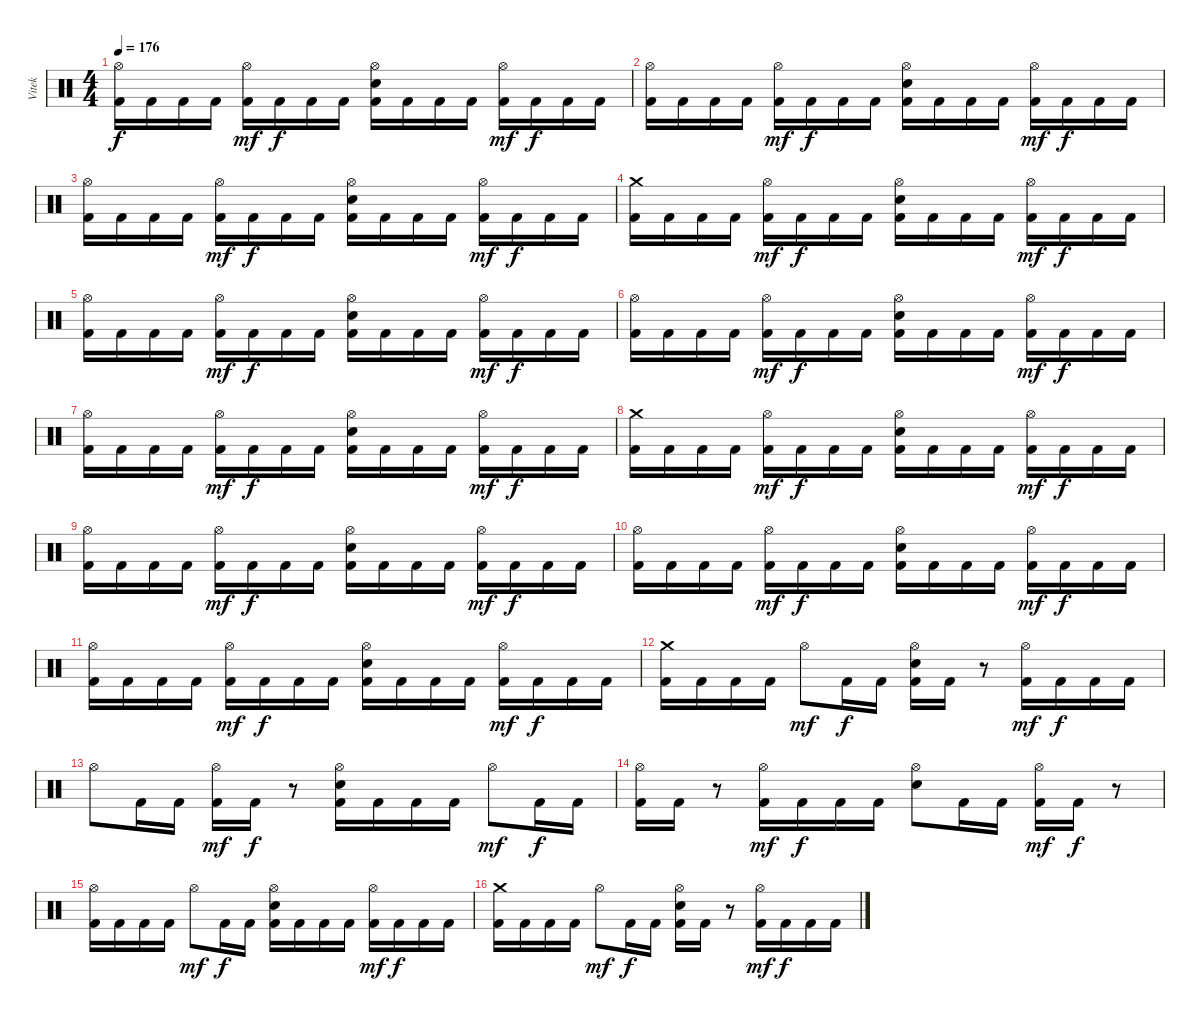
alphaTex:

\track ("Vitek" "Vitek") {instrument percussion}
\staff {score}
\articulation defaults
\ts (4 4)
\tempo 176
\clef neutral
\ks c
("Hi-Hat (open)" "Kick (hit) 2").16{dy f} "Kick (hit) 2".16 "Kick (hit) 2".16 "Kick (hit) 2".16 ("Hi-Hat (open)" "Kick (hit) 2").16{dy mf} "Kick (hit) 2".16{dy f} "Kick (hit) 2".16 "Kick (hit) 2".16 ("Hi-Hat (open)" "Electric Snare (hit)" "Kick (hit) 2").16 "Kick (hit) 2".16 "Kick (hit) 2".16 "Kick (hit) 2".16 ("Hi-Hat (open)" "Kick (hit) 2").16{dy mf} "Kick (hit) 2".16{dy f} "Kick (hit) 2".16 "Kick (hit) 2".16 |
("Hi-Hat (open)" "Kick (hit) 2").16 "Kick (hit) 2".16 "Kick (hit) 2".16 "Kick (hit) 2".16 ("Hi-Hat (open)" "Kick (hit) 2").16{dy mf} "Kick (hit) 2".16{dy f} "Kick (hit) 2".16 "Kick (hit) 2".16 ("Hi-Hat (open)" "Electric Snare (hit)" "Kick (hit) 2").16 "Kick (hit) 2".16 "Kick (hit) 2".16 "Kick (hit) 2".16 ("Hi-Hat (open)" "Kick (hit) 2").16{dy mf} "Kick (hit) 2".16{dy f} "Kick (hit) 2".16 "Kick (hit) 2".16 |
("Hi-Hat (open)" "Kick (hit) 2").16 "Kick (hit) 2".16 "Kick (hit) 2".16 "Kick (hit) 2".16 ("Hi-Hat (open)" "Kick (hit) 2").16{dy mf} "Kick (hit) 2".16{dy f} "Kick (hit) 2".16 "Kick (hit) 2".16 ("Hi-Hat (open)" "Electric Snare (hit)" "Kick (hit) 2").16 "Kick (hit) 2".16 "Kick (hit) 2".16 "Kick (hit) 2".16 ("Hi-Hat (open)" "Kick (hit) 2").16{dy mf} "Kick (hit) 2".16{dy f} "Kick (hit) 2".16 "Kick (hit) 2".16 |
("Crash medium (hit)" "Kick (hit) 2").16 "Kick (hit) 2".16 "Kick (hit) 2".16 "Kick (hit) 2".16 ("Hi-Hat (open)" "Kick (hit) 2").16{dy mf} "Kick (hit) 2".16{dy f} "Kick (hit) 2".16 "Kick (hit) 2".16 ("Hi-Hat (open)" "Electric Snare (hit)" "Kick (hit) 2").16 "Kick (hit) 2".16 "Kick (hit) 2".16 "Kick (hit) 2".16 ("Hi-Hat (open)" "Kick (hit) 2").16{dy mf} "Kick (hit) 2".16{dy f} "Kick (hit) 2".16 "Kick (hit) 2".16 |
("Hi-Hat (open)" "Kick (hit) 2").16 "Kick (hit) 2".16 "Kick (hit) 2".16 "Kick (hit) 2".16 ("Hi-Hat (open)" "Kick (hit) 2").16{dy mf} "Kick (hit) 2".16{dy f} "Kick (hit) 2".16 "Kick (hit) 2".16 ("Hi-Hat (open)" "Electric Snare (hit)" "Kick (hit) 2").16 "Kick (hit) 2".16 "Kick (hit) 2".16 "Kick (hit) 2".16 ("Hi-Hat (open)" "Kick (hit) 2").16{dy mf} "Kick (hit) 2".16{dy f} "Kick (hit) 2".16 "Kick (hit) 2".16 |
("Hi-Hat (open)" "Kick (hit) 2").16 "Kick (hit) 2".16 "Kick (hit) 2".16 "Kick (hit) 2".16 ("Hi-Hat (open)" "Kick (hit) 2").16{dy mf} "Kick (hit) 2".16{dy f} "Kick (hit) 2".16 "Kick (hit) 2".16 ("Hi-Hat (open)" "Electric Snare (hit)" "Kick (hit) 2").16 "Kick (hit) 2".16 "Kick (hit) 2".16 "Kick (hit) 2".16 ("Hi-Hat (open)" "Kick (hit) 2").16{dy mf} "Kick (hit) 2".16{dy f} "Kick (hit) 2".16 "Kick (hit) 2".16 |
("Hi-Hat (open)" "Kick (hit) 2").16 "Kick (hit) 2".16 "Kick (hit) 2".16 "Kick (hit) 2".16 ("Hi-Hat (open)" "Kick (hit) 2").16{dy mf} "Kick (hit) 2".16{dy f} "Kick (hit) 2".16 "Kick (hit) 2".16 ("Hi-Hat (open)" "Electric Snare (hit)" "Kick (hit) 2").16 "Kick (hit) 2".16 "Kick (hit) 2".16 "Kick (hit) 2".16 ("Hi-Hat (open)" "Kick (hit) 2").16{dy mf} "Kick (hit) 2".16{dy f} "Kick (hit) 2".16 "Kick (hit) 2".16 |
("Crash medium (hit)" "Kick (hit) 2").16 "Kick (hit) 2".16 "Kick (hit) 2".16 "Kick (hit) 2".16 ("Hi-Hat (open)" "Kick (hit) 2").16{dy mf} "Kick (hit) 2".16{dy f} "Kick (hit) 2".16 "Kick (hit) 2".16 ("Hi-Hat (open)" "Electric Snare (hit)" "Kick (hit) 2").16 "Kick (hit) 2".16 "Kick (hit) 2".16 "Kick (hit) 2".16 ("Hi-Hat (open)" "Kick (hit) 2").16{dy mf} "Kick (hit) 2".16{dy f} "Kick (hit) 2".16 "Kick (hit) 2".16 |
("Hi-Hat (open)" "Kick (hit) 2").16 "Kick (hit) 2".16 "Kick (hit) 2".16 "Kick (hit) 2".16 ("Hi-Hat (open)" "Kick (hit) 2").16{dy mf} "Kick (hit) 2".16{dy f} "Kick (hit) 2".16 "Kick (hit) 2".16 ("Hi-Hat (open)" "Electric Snare (hit)" "Kick (hit) 2").16 "Kick (hit) 2".16 "Kick (hit) 2".16 "Kick (hit) 2".16 ("Hi-Hat (open)" "Kick (hit) 2").16{dy mf} "Kick (hit) 2".16{dy f} "Kick (hit) 2".16 "Kick (hit) 2".16 |
("Hi-Hat (open)" "Kick (hit) 2").16 "Kick (hit) 2".16 "Kick (hit) 2".16 "Kick (hit) 2".16 ("Hi-Hat (open)" "Kick (hit) 2").16{dy mf} "Kick (hit) 2".16{dy f} "Kick (hit) 2".16 "Kick (hit) 2".16 ("Hi-Hat (open)" "Electric Snare (hit)" "Kick (hit) 2").16 "Kick (hit) 2".16 "Kick (hit) 2".16 "Kick (hit) 2".16 ("Hi-Hat (open)" "Kick (hit) 2").16{dy mf} "Kick (hit) 2".16{dy f} "Kick (hit) 2".16 "Kick (hit) 2".16 |
("Hi-Hat (open)" "Kick (hit) 2").16 "Kick (hit) 2".16 "Kick (hit) 2".16 "Kick (hit) 2".16 ("Hi-Hat (open)" "Kick (hit) 2").16{dy mf} "Kick (hit) 2".16{dy f} "Kick (hit) 2".16 "Kick (hit) 2".16 ("Hi-Hat (open)" "Electric Snare (hit)" "Kick (hit) 2").16 "Kick (hit) 2".16 "Kick (hit) 2".16 "Kick (hit) 2".16 ("Hi-Hat (open)" "Kick (hit) 2").16{dy mf} "Kick (hit) 2".16{dy f} "Kick (hit) 2".16 "Kick (hit) 2".16 |
("Crash medium (hit)" "Kick (hit) 2").16 "Kick (hit) 2".16 "Kick (hit) 2".16 "Kick (hit) 2".16 "Hi-Hat (open)".8{dy mf} "Kick (hit) 2".16{dy f} "Kick (hit) 2".16 ("Hi-Hat (open)" "Electric Snare (hit)" "Kick (hit) 2").16 "Kick (hit) 2".16 r.8 ("Hi-Hat (open)" "Kick (hit) 2").16{dy mf} "Kick (hit) 2".16{dy f} "Kick (hit) 2".16 "Kick (hit) 2".16 |
"Hi-Hat (open)".8 "Kick (hit) 2".16 "Kick (hit) 2".16 ("Hi-Hat (open)" "Kick (hit) 2").16{dy mf} "Kick (hit) 2".16{dy f} r.8 ("Hi-Hat (open)" "Electric Snare (hit)" "Kick (hit) 2").16 "Kick (hit) 2".16 "Kick (hit) 2".16 "Kick (hit) 2".16 "Hi-Hat (open)".8{dy mf} "Kick (hit) 2".16{dy f} "Kick (hit) 2".16 |
("Hi-Hat (open)" "Kick (hit) 2").16 "Kick (hit) 2".16 r.8 ("Hi-Hat (open)" "Kick (hit) 2").16{dy mf} "Kick (hit) 2".16{dy f} "Kick (hit) 2".16 "Kick (hit) 2".16 ("Hi-Hat (open)" "Electric Snare (hit)").8 "Kick (hit) 2".16 "Kick (hit) 2".16 ("Hi-Hat (open)" "Kick (hit) 2").16{dy mf} "Kick (hit) 2".16{dy f} r.8 |
("Hi-Hat (open)" "Kick (hit) 2").16 "Kick (hit) 2".16 "Kick (hit) 2".16 "Kick (hit) 2".16 "Hi-Hat (open)".8{dy mf} "Kick (hit) 2".16{dy f} "Kick (hit) 2".16 ("Hi-Hat (open)" "Electric Snare (hit)" "Kick (hit) 2").16 "Kick (hit) 2".16 "Kick (hit) 2".16 "Kick (hit) 2".16 ("Hi-Hat (open)" "Kick (hit) 2").16{dy mf} "Kick (hit) 2".16{dy f} "Kick (hit) 2".16 "Kick (hit) 2".16 |
("Crash medium (hit)" "Kick (hit) 2").16 "Kick (hit) 2".16 "Kick (hit) 2".16 "Kick (hit) 2".16 "Hi-Hat (open)".8{dy mf} "Kick (hit) 2".16{dy f} "Kick (hit) 2".16 ("Hi-Hat (open)" "Electric Snare (hit)" "Kick (hit) 2").16 "Kick (hit) 2".16 r.8 ("Hi-Hat (open)" "Kick (hit) 2").16{dy mf} "Kick (hit) 2".16{dy f} "Kick (hit) 2".16 "Kick (hit) 2".16
